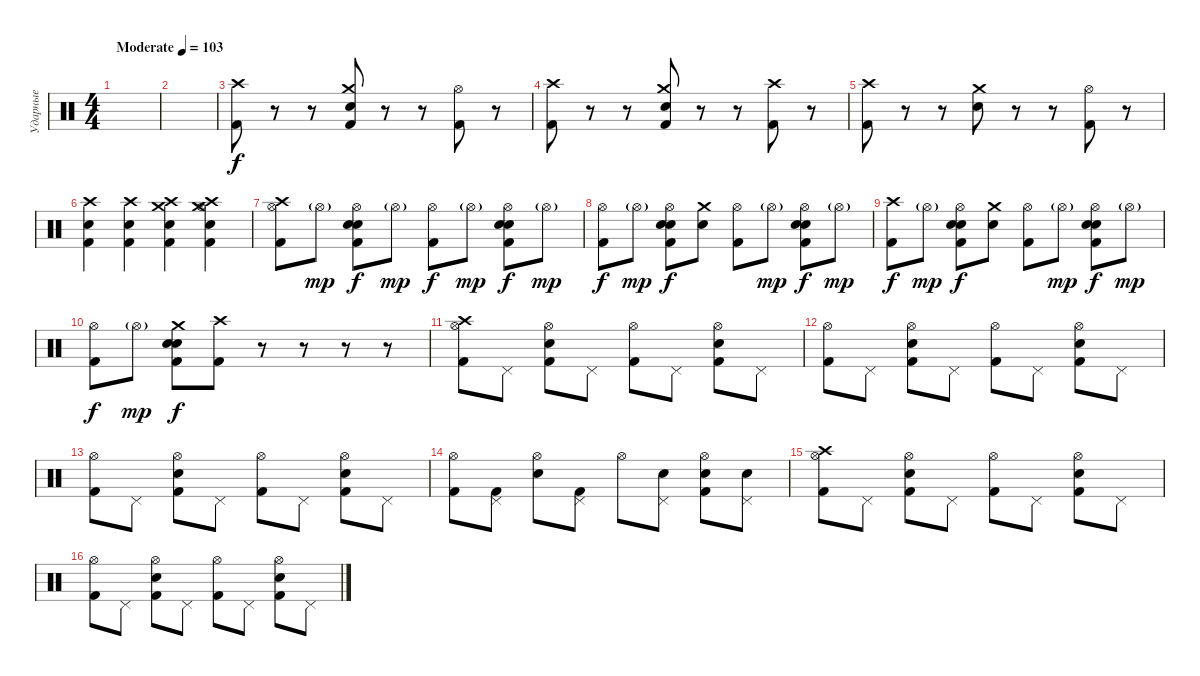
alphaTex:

\track ("Ударные" "Ударные") {instrument percussion}
\staff {score}
\articulation defaults
\ts (4 4)
\tempo (103 "Moderate")
\clef neutral
\ks c
|
|
("Crash high (hit)" "Kick (hit) 2").8 r.8 r.8 ("Crash medium (hit)" "Snare (hit) 2" "Kick (hit) 2").8 r.8 r.8 ("Hi-Hat (open)" "Kick (hit) 2").8 r.8 |
("Crash high (hit)" "Kick (hit) 2").8 r.8 r.8 ("Crash medium (hit)" "Snare (hit) 2" "Kick (hit) 2").8 r.8 r.8 ("Crash high (hit)" "Kick (hit) 2").8 r.8 |
("Crash high (hit)" "Kick (hit) 2").8 r.8 r.8 ("Crash medium (hit)" "Snare (hit) 2").8 r.8 r.8 ("Hi-Hat (open)" "Kick (hit) 2").8 r.8 |
("Crash high (hit)" "Snare (hit) 2" "Kick (hit) 2").4 ("Crash high (hit)" "Snare (hit) 2" "Kick (hit) 2").4 ("Crash medium (hit)" "Crash high (hit)" "Snare (hit) 2" "Kick (hit) 2").4 ("Crash medium (hit)" "Crash high (hit)" "Snare (hit) 2" "Hi-Hat (open)" "Kick (hit) 2").4 |
("Crash high (hit)" "Hi-Hat (open)" "Kick (hit) 2").8 "Hi-Hat (open)"{g}.8{dy mp} ("Hi-Hat (open)" "Snare (hit) 2" "Hand Clap (hit)" "Kick (hit) 2").8{dy f} "Hi-Hat (open)"{g}.8{dy mp} ("Hi-Hat (open)" "Kick (hit) 2").8{dy f} "Hi-Hat (open)"{g}.8{dy mp} ("Hi-Hat (open)" "Snare (hit) 2" "Hand Clap (hit)" "Kick (hit) 2").8{dy f} "Hi-Hat (open)"{g}.8{dy mp} |
("Hi-Hat (open)" "Kick (hit) 2").8{dy f} "Hi-Hat (open)"{g}.8{dy mp} ("Hi-Hat (open)" "Snare (hit) 2" "Hand Clap (hit)" "Kick (hit) 2").8{dy f} ("Crash medium (hit)" "Snare (hit) 2").8 ("Hi-Hat (open)" "Kick (hit) 2").8 "Hi-Hat (open)"{g}.8{dy mp} ("Hi-Hat (open)" "Snare (hit) 2" "Hand Clap (hit)" "Kick (hit) 2").8{dy f} "Hi-Hat (open)"{g}.8{dy mp} |
("Crash high (hit)" "Kick (hit) 2").8{dy f} "Hi-Hat (open)"{g}.8{dy mp} ("Hi-Hat (open)" "Snare (hit) 2" "Hand Clap (hit)" "Kick (hit) 2").8{dy f} ("Crash medium (hit)" "Snare (hit) 2").8 ("Hi-Hat (open)" "Kick (hit) 2").8 "Hi-Hat (open)"{g}.8{dy mp} ("Hi-Hat (open)" "Snare (hit) 2" "Hand Clap (hit)" "Kick (hit) 2").8{dy f} "Hi-Hat (open)"{g}.8{dy mp} |
("Hi-Hat (open)" "Kick (hit) 2").8{dy f} "Hi-Hat (open)"{g}.8{dy mp} ("Crash medium (hit)" "Snare (hit) 2" "Hand Clap (hit)" "Kick (hit) 2").8{dy f} ("Crash high (hit)" "Kick (hit) 2").8 r.8 r.8 r.8 r.8 |
("Crash high (hit)" "Hi-Hat (open)" "Kick (hit) 2").8 "Pedal Hi-Hat (hit)".8 ("Hi-Hat (open)" "Snare (hit) 2" "Kick (hit) 2").8 "Pedal Hi-Hat (hit)".8 ("Hi-Hat (open)" "Kick (hit) 2").8 "Pedal Hi-Hat (hit)".8 ("Hi-Hat (open)" "Snare (hit) 2" "Kick (hit) 2").8 "Pedal Hi-Hat (hit)".8 |
("Hi-Hat (open)" "Kick (hit) 2").8 "Pedal Hi-Hat (hit)".8 ("Hi-Hat (open)" "Snare (hit) 2" "Kick (hit) 2").8 "Pedal Hi-Hat (hit)".8 ("Hi-Hat (open)" "Kick (hit) 2").8 "Pedal Hi-Hat (hit)".8 ("Hi-Hat (open)" "Snare (hit) 2" "Kick (hit) 2").8 "Pedal Hi-Hat (hit)".8 |
("Hi-Hat (open)" "Kick (hit) 2").8 "Pedal Hi-Hat (hit)".8 ("Hi-Hat (open)" "Snare (hit) 2" "Kick (hit) 2").8 "Pedal Hi-Hat (hit)".8 ("Hi-Hat (open)" "Kick (hit) 2").8 "Pedal Hi-Hat (hit)".8 ("Hi-Hat (open)" "Snare (hit) 2" "Kick (hit) 2").8 "Pedal Hi-Hat (hit)".8 |
("Hi-Hat (open)" "Kick (hit) 2").8 ("Pedal Hi-Hat (hit)" "Kick (hit) 2").8 ("Hi-Hat (open)" "Snare (hit) 2").8 ("Pedal Hi-Hat (hit)" "Kick (hit) 2").8 "Hi-Hat (open)".8 ("Pedal Hi-Hat (hit)" "Snare (hit) 2").8 ("Hi-Hat (open)" "Snare (hit) 2" "Kick (hit) 2").8 ("Pedal Hi-Hat (hit)" "Snare (hit) 2").8 |
("Crash high (hit)" "Hi-Hat (open)" "Kick (hit) 2").8 "Pedal Hi-Hat (hit)".8 ("Hi-Hat (open)" "Snare (hit) 2" "Kick (hit) 2").8 "Pedal Hi-Hat (hit)".8 ("Hi-Hat (open)" "Kick (hit) 2").8 "Pedal Hi-Hat (hit)".8 ("Hi-Hat (open)" "Snare (hit) 2" "Kick (hit) 2").8 "Pedal Hi-Hat (hit)".8 |
("Hi-Hat (open)" "Kick (hit) 2").8 "Pedal Hi-Hat (hit)".8 ("Hi-Hat (open)" "Snare (hit) 2" "Kick (hit) 2").8 "Pedal Hi-Hat (hit)".8 ("Hi-Hat (open)" "Kick (hit) 2").8 "Pedal Hi-Hat (hit)".8 ("Hi-Hat (open)" "Snare (hit) 2" "Kick (hit) 2").8 "Pedal Hi-Hat (hit)".8
